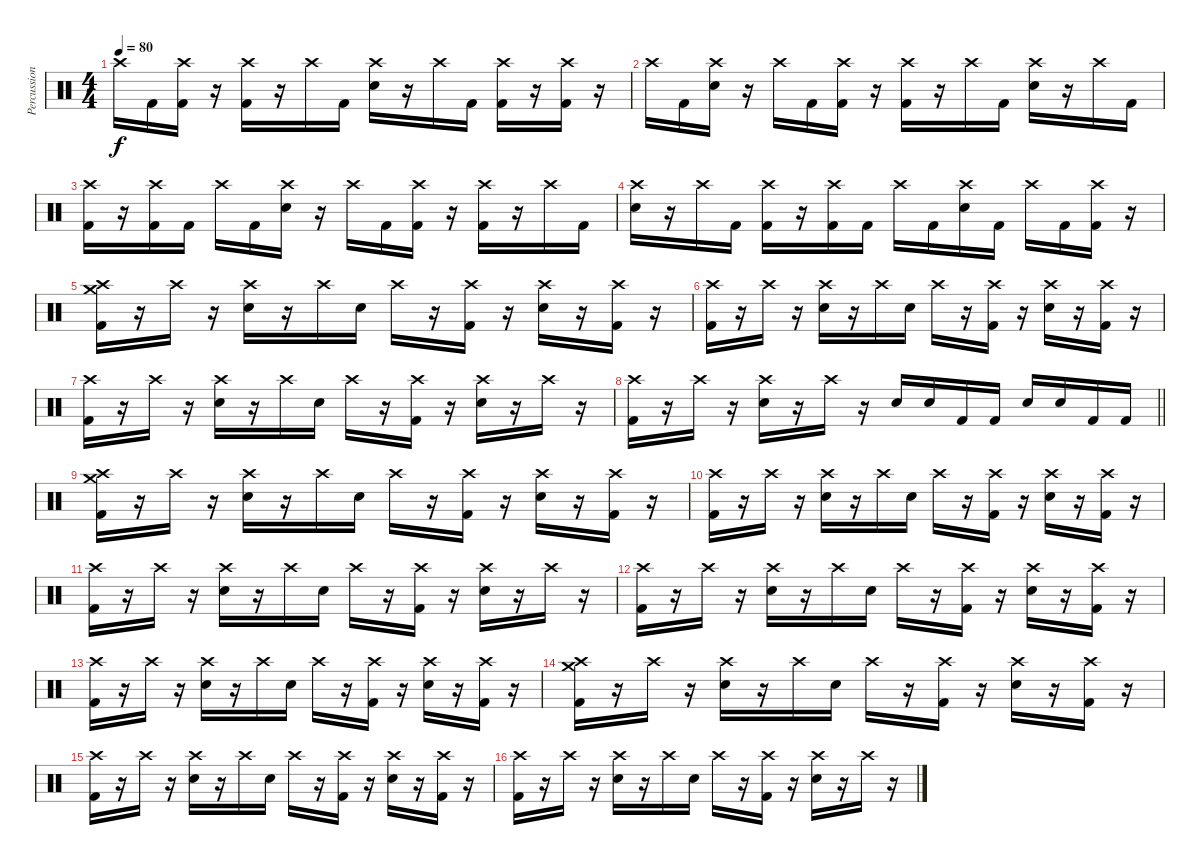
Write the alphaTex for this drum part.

\track ("Percussion" "Percussion") {instrument percussion}
\staff {score}
\articulation defaults
\ts (4 4)
\tempo 80
\clef neutral
\ks c "Crash high (hit)".16{dy f} "Kick (hit) 2".16
("Crash high (hit)" "Kick (hit) 2").16 r.16 ("Crash high (hit)" "Kick (hit) 2").16 r.16 "Crash high (hit)".16 "Kick (hit) 2".16 ("Crash high (hit)" "Electric Snare (hit)").16 r.16 "Crash high (hit)".16 "Kick (hit) 2".16 ("Crash high (hit)" "Kick (hit) 2").16 r.16 ("Crash high (hit)" "Kick (hit) 2").16 r.16 |
"Crash high (hit)".16 "Kick (hit) 2".16 ("Crash high (hit)" "Electric Snare (hit)").16 r.16 "Crash high (hit)".16 "Kick (hit) 2".16 ("Crash high (hit)" "Kick (hit) 2").16 r.16 ("Crash high (hit)" "Kick (hit) 2").16 r.16 "Crash high (hit)".16 "Kick (hit) 2".16 ("Crash high (hit)" "Electric Snare (hit)").16 r.16 "Crash high (hit)".16 "Kick (hit) 2".16 |
("Crash high (hit)" "Kick (hit) 2").16 r.16 ("Crash high (hit)" "Kick (hit) 2").16 "Kick (hit) 2".16 "Crash high (hit)".16 "Kick (hit) 2".16 ("Crash high (hit)" "Electric Snare (hit)").16 r.16 "Crash high (hit)".16 "Kick (hit) 2".16 ("Crash high (hit)" "Kick (hit) 2").16 r.16 ("Crash high (hit)" "Kick (hit) 2").16 r.16 "Crash high (hit)".16 "Kick (hit) 2".16 |
("Crash high (hit)" "Electric Snare (hit)").16 r.16 "Crash high (hit)".16 "Kick (hit) 2".16 ("Crash high (hit)" "Kick (hit) 2").16 r.16 ("Crash high (hit)" "Kick (hit) 2").16 "Kick (hit) 2".16 "Crash high (hit)".16 "Kick (hit) 2".16 ("Crash high (hit)" "Electric Snare (hit)").16 "Kick (hit) 2".16 "Crash high (hit)".16 "Kick (hit) 2".16 ("Crash high (hit)" "Kick (hit) 2").16 r.16 |
("Crash medium (hit)" "Crash high (hit)" "Kick (hit) 2").16 r.16 "Crash high (hit)".16 r.16 ("Crash high (hit)" "Electric Snare (hit)").16 r.16 "Crash high (hit)".16 "Electric Snare (hit)".16 "Crash high (hit)".16 r.16 ("Crash high (hit)" "Kick (hit) 2").16 r.16 ("Crash high (hit)" "Electric Snare (hit)").16 r.16 ("Crash high (hit)" "Kick (hit) 2").16 r.16 |
("Crash high (hit)" "Kick (hit) 2").16 r.16 "Crash high (hit)".16 r.16 ("Crash high (hit)" "Electric Snare (hit)").16 r.16 "Crash high (hit)".16 "Electric Snare (hit)".16 "Crash high (hit)".16 r.16 ("Crash high (hit)" "Kick (hit) 2").16 r.16 ("Crash high (hit)" "Electric Snare (hit)").16 r.16 ("Crash high (hit)" "Kick (hit) 2").16 r.16 |
("Crash high (hit)" "Kick (hit) 2").16 r.16 "Crash high (hit)".16 r.16 ("Crash high (hit)" "Electric Snare (hit)").16 r.16 "Crash high (hit)".16 "Electric Snare (hit)".16 "Crash high (hit)".16 r.16 ("Crash high (hit)" "Kick (hit) 2").16 r.16 ("Crash high (hit)" "Electric Snare (hit)").16 r.16 "Crash high (hit)".16 r.16 |
\barLineRight lightlight
("Crash high (hit)" "Kick (hit) 2").16 r.16 "Crash high (hit)".16 r.16 ("Crash high (hit)" "Electric Snare (hit)").16 r.16 "Crash high (hit)".16 r.16 "Electric Snare (hit)".16 "Electric Snare (hit)".16 "Kick (hit) 2".16 "Kick (hit) 2".16 "Electric Snare (hit)".16 "Electric Snare (hit)".16 "Kick (hit) 2".16 "Kick (hit) 2".16 |
("Crash medium (hit)" "Crash high (hit)" "Kick (hit) 2").16 r.16 "Crash high (hit)".16 r.16 ("Crash high (hit)" "Electric Snare (hit)").16 r.16 "Crash high (hit)".16 "Electric Snare (hit)".16 "Crash high (hit)".16 r.16 ("Crash high (hit)" "Kick (hit) 2").16 r.16 ("Crash high (hit)" "Electric Snare (hit)").16 r.16 ("Crash high (hit)" "Kick (hit) 2").16 r.16 |
("Crash high (hit)" "Kick (hit) 2").16 r.16 "Crash high (hit)".16 r.16 ("Crash high (hit)" "Electric Snare (hit)").16 r.16 "Crash high (hit)".16 "Electric Snare (hit)".16 "Crash high (hit)".16 r.16 ("Crash high (hit)" "Kick (hit) 2").16 r.16 ("Crash high (hit)" "Electric Snare (hit)").16 r.16 ("Crash high (hit)" "Kick (hit) 2").16 r.16 |
("Crash high (hit)" "Kick (hit) 2").16 r.16 "Crash high (hit)".16 r.16 ("Crash high (hit)" "Electric Snare (hit)").16 r.16 "Crash high (hit)".16 "Electric Snare (hit)".16 "Crash high (hit)".16 r.16 ("Crash high (hit)" "Kick (hit) 2").16 r.16 ("Crash high (hit)" "Electric Snare (hit)").16 r.16 "Crash high (hit)".16 r.16 |
("Crash high (hit)" "Kick (hit) 2").16 r.16 "Crash high (hit)".16 r.16 ("Crash high (hit)" "Electric Snare (hit)").16 r.16 "Crash high (hit)".16 "Electric Snare (hit)".16 "Crash high (hit)".16 r.16 ("Crash high (hit)" "Kick (hit) 2").16 r.16 ("Crash high (hit)" "Electric Snare (hit)").16 r.16 ("Crash high (hit)" "Kick (hit) 2").16 r.16 |
("Crash high (hit)" "Kick (hit) 2").16 r.16 "Crash high (hit)".16 r.16 ("Crash high (hit)" "Electric Snare (hit)").16 r.16 "Crash high (hit)".16 "Electric Snare (hit)".16 "Crash high (hit)".16 r.16 ("Crash high (hit)" "Kick (hit) 2").16 r.16 ("Crash high (hit)" "Electric Snare (hit)").16 r.16 ("Crash high (hit)" "Kick (hit) 2").16 r.16 |
("Crash medium (hit)" "Crash high (hit)" "Kick (hit) 2").16 r.16 "Crash high (hit)".16 r.16 ("Crash high (hit)" "Electric Snare (hit)").16 r.16 "Crash high (hit)".16 "Electric Snare (hit)".16 "Crash high (hit)".16 r.16 ("Crash high (hit)" "Kick (hit) 2").16 r.16 ("Crash high (hit)" "Electric Snare (hit)").16 r.16 ("Crash high (hit)" "Kick (hit) 2").16 r.16 |
("Crash high (hit)" "Kick (hit) 2").16 r.16 "Crash high (hit)".16 r.16 ("Crash high (hit)" "Electric Snare (hit)").16 r.16 "Crash high (hit)".16 "Electric Snare (hit)".16 "Crash high (hit)".16 r.16 ("Crash high (hit)" "Kick (hit) 2").16 r.16 ("Crash high (hit)" "Electric Snare (hit)").16 r.16 ("Crash high (hit)" "Kick (hit) 2").16 r.16 |
("Crash high (hit)" "Kick (hit) 2").16 r.16 "Crash high (hit)".16 r.16 ("Crash high (hit)" "Electric Snare (hit)").16 r.16 "Crash high (hit)".16 "Electric Snare (hit)".16 "Crash high (hit)".16 r.16 ("Crash high (hit)" "Kick (hit) 2").16 r.16 ("Crash high (hit)" "Electric Snare (hit)").16 r.16 "Crash high (hit)".16 r.16
